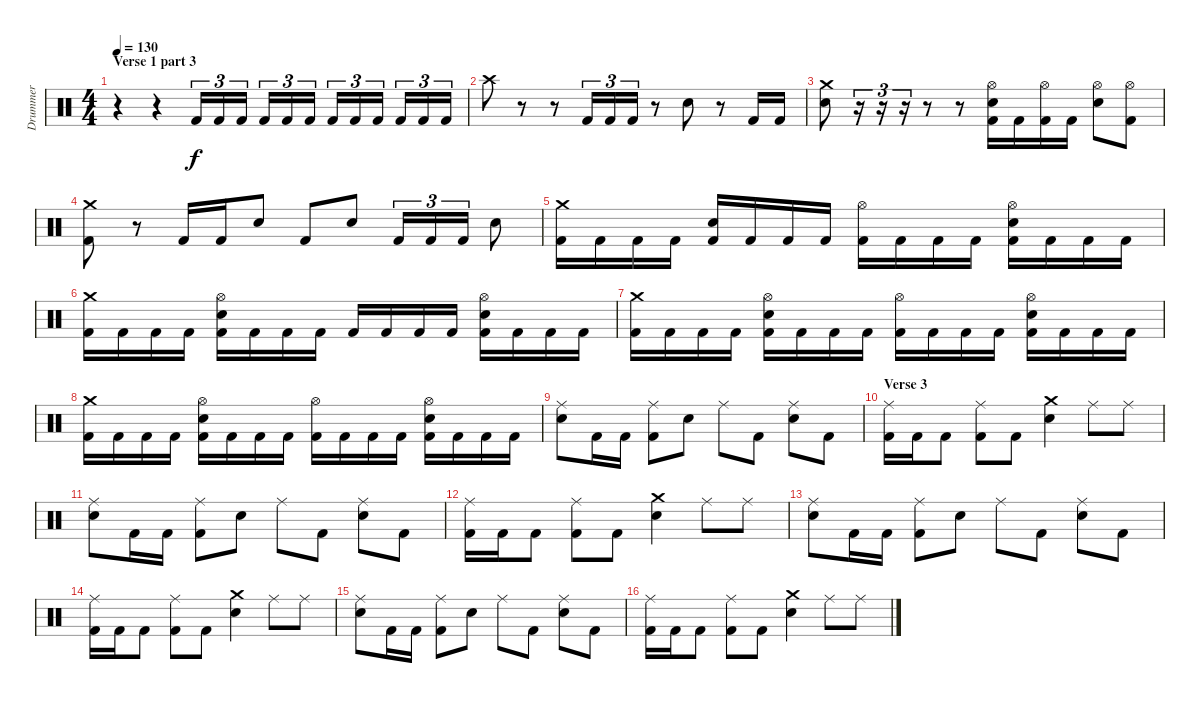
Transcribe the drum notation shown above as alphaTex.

\track ("Drummer" "Drummer") {instrument percussion}
\staff {score}
\articulation defaults
\ts (4 4)
\section ("" "Verse 1 part 3")
\tempo 130
\clef neutral
\ks c
r.4{dy f} r.4 "Kick (hit) 2".16{tu (3 2)} "Kick (hit) 2".16{tu (3 2)} "Kick (hit) 2".16{tu (3 2)} "Kick (hit) 2".16{tu (3 2)} "Kick (hit) 2".16{tu (3 2)} "Kick (hit) 2".16{tu (3 2)} "Kick (hit) 2".16{tu (3 2)} "Kick (hit) 2".16{tu (3 2)} "Kick (hit) 2".16{tu (3 2)} "Kick (hit) 2".16{tu (3 2)} "Kick (hit) 2".16{tu (3 2)} "Kick (hit) 2".16{tu (3 2)} |
"Crash high (hit)".8 r.8 r.8 "Kick (hit) 2".16{tu (3 2)} "Kick (hit) 2".16{tu (3 2)} "Kick (hit) 2".16{tu (3 2)} r.8 "Snare (hit) 2".8 r.8 "Kick (hit) 2".16 "Kick (hit) 2".16 |
("Crash medium (hit)" "Snare (hit) 2").8 r.16{tu (3 2)} r.16{tu (3 2)} r.16{tu (3 2)} r.8 r.8 ("Hi-Hat (open)" "Snare (hit) 2" "Kick (hit) 2").16 "Kick (hit) 2".16 ("Hi-Hat (open)" "Kick (hit) 2").16 "Kick (hit) 2".16 ("Hi-Hat (open)" "Snare (hit) 2").8 ("Hi-Hat (open)" "Kick (hit) 2").8 |
("Crash medium (hit)" "Kick (hit) 2").8 r.8 "Kick (hit) 2".16 "Kick (hit) 2".16 "Snare (hit) 2".8 "Kick (hit) 2".8 "Snare (hit) 2".8 "Kick (hit) 2".16{tu (3 2)} "Kick (hit) 2".16{tu (3 2)} "Kick (hit) 2".16{tu (3 2)} "Snare (hit) 2".8 |
("Crash medium (hit)" "Kick (hit) 2").16 "Kick (hit) 2".16 "Kick (hit) 2".16 "Kick (hit) 2".16 ("Snare (hit) 2" "Kick (hit) 2").16 "Kick (hit) 2".16 "Kick (hit) 2".16 "Kick (hit) 2".16 ("Hi-Hat (open)" "Kick (hit) 2").16 "Kick (hit) 2".16 "Kick (hit) 2".16 "Kick (hit) 2".16 ("Hi-Hat (open)" "Snare (hit) 2" "Kick (hit) 2").16 "Kick (hit) 2".16 "Kick (hit) 2".16 "Kick (hit) 2".16 |
("Crash medium (hit)" "Kick (hit) 2").16 "Kick (hit) 2".16 "Kick (hit) 2".16 "Kick (hit) 2".16 ("Hi-Hat (open)" "Snare (hit) 2" "Kick (hit) 2").16 "Kick (hit) 2".16 "Kick (hit) 2".16 "Kick (hit) 2".16 "Kick (hit) 2".16 "Kick (hit) 2".16 "Kick (hit) 2".16 "Kick (hit) 2".16 ("Hi-Hat (open)" "Snare (hit) 2" "Kick (hit) 2").16 "Kick (hit) 2".16 "Kick (hit) 2".16 "Kick (hit) 2".16 |
("Crash medium (hit)" "Kick (hit) 2").16 "Kick (hit) 2".16 "Kick (hit) 2".16 "Kick (hit) 2".16 ("Hi-Hat (open)" "Snare (hit) 2" "Kick (hit) 2").16 "Kick (hit) 2".16 "Kick (hit) 2".16 "Kick (hit) 2".16 ("Hi-Hat (open)" "Kick (hit) 2").16 "Kick (hit) 2".16 "Kick (hit) 2".16 "Kick (hit) 2".16 ("Hi-Hat (open)" "Snare (hit) 2" "Kick (hit) 2").16 "Kick (hit) 2".16 "Kick (hit) 2".16 "Kick (hit) 2".16 |
("Crash medium (hit)" "Kick (hit) 2").16 "Kick (hit) 2".16 "Kick (hit) 2".16 "Kick (hit) 2".16 ("Hi-Hat (open)" "Snare (hit) 2" "Kick (hit) 2").16 "Kick (hit) 2".16 "Kick (hit) 2".16 "Kick (hit) 2".16 ("Hi-Hat (open)" "Kick (hit) 2").16 "Kick (hit) 2".16 "Kick (hit) 2".16 "Kick (hit) 2".16 ("Hi-Hat (open)" "Snare (hit) 2" "Kick (hit) 2").16 "Kick (hit) 2".16 "Kick (hit) 2".16 "Kick (hit) 2".16 |
("Ride (middle)" "Snare (hit) 2").8 "Kick (hit) 2".16 "Kick (hit) 2".16 ("Ride (middle)" "Kick (hit) 2").8 "Snare (hit) 2".8 "Ride (middle)".8 "Kick (hit) 2".8 ("Ride (middle)" "Snare (hit) 2").8 "Kick (hit) 2".8 |
\section ("" "Verse 3")
("Ride (middle)" "Kick (hit) 2").16 "Kick (hit) 2".16 "Kick (hit) 2".8 ("Ride (middle)" "Kick (hit) 2").8 "Kick (hit) 2".8 ("Crash medium (hit)" "Snare (hit) 2").4 "Ride (middle)".8 "Ride (middle)".8 |
("Ride (middle)" "Snare (hit) 2").8 "Kick (hit) 2".16 "Kick (hit) 2".16 ("Ride (middle)" "Kick (hit) 2").8 "Snare (hit) 2".8 "Ride (middle)".8 "Kick (hit) 2".8 ("Ride (middle)" "Snare (hit) 2").8 "Kick (hit) 2".8 |
("Ride (middle)" "Kick (hit) 2").16 "Kick (hit) 2".16 "Kick (hit) 2".8 ("Ride (middle)" "Kick (hit) 2").8 "Kick (hit) 2".8 ("Crash medium (hit)" "Snare (hit) 2").4 "Ride (middle)".8 "Ride (middle)".8 |
("Ride (middle)" "Snare (hit) 2").8 "Kick (hit) 2".16 "Kick (hit) 2".16 ("Ride (middle)" "Kick (hit) 2").8 "Snare (hit) 2".8 "Ride (middle)".8 "Kick (hit) 2".8 ("Ride (middle)" "Snare (hit) 2").8 "Kick (hit) 2".8 |
("Ride (middle)" "Kick (hit) 2").16 "Kick (hit) 2".16 "Kick (hit) 2".8 ("Ride (middle)" "Kick (hit) 2").8 "Kick (hit) 2".8 ("Crash medium (hit)" "Snare (hit) 2").4 "Ride (middle)".8 "Ride (middle)".8 |
("Ride (middle)" "Snare (hit) 2").8 "Kick (hit) 2".16 "Kick (hit) 2".16 ("Ride (middle)" "Kick (hit) 2").8 "Snare (hit) 2".8 "Ride (middle)".8 "Kick (hit) 2".8 ("Ride (middle)" "Snare (hit) 2").8 "Kick (hit) 2".8 |
("Ride (middle)" "Kick (hit) 2").16 "Kick (hit) 2".16 "Kick (hit) 2".8 ("Ride (middle)" "Kick (hit) 2").8 "Kick (hit) 2".8 ("Crash medium (hit)" "Snare (hit) 2").4 "Ride (middle)".8 "Ride (middle)".8
